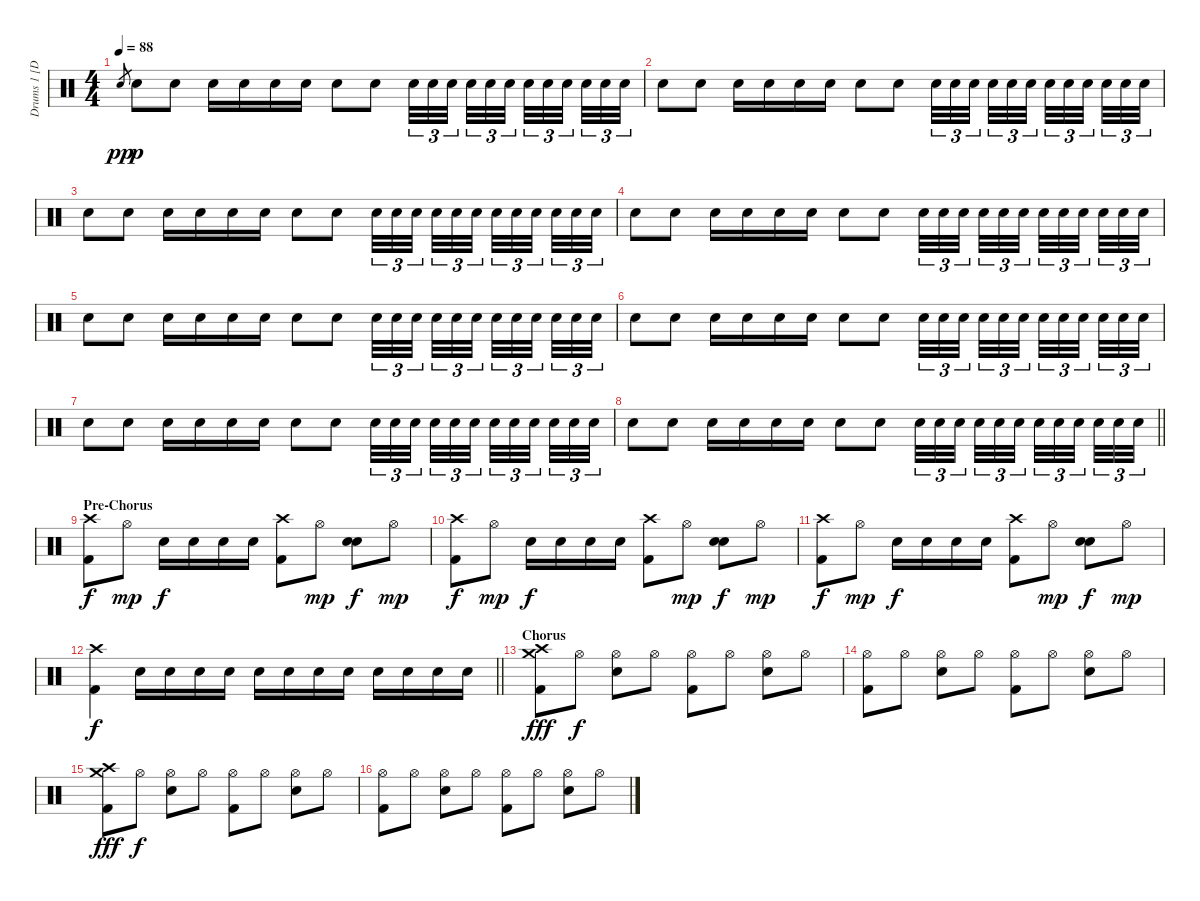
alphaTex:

\track ("Drums 1 [Doom]" "Drums 1 [D") {instrument percussion}
\staff {score}
\articulation defaults
\ts (4 4)
\tempo 88
\clef neutral
\ks c "Electric Snare (hit)".8{gr dy pp} "Electric Snare (hit)".8{dy p} "Electric Snare (hit)".8 "Electric Snare (hit)".16 "Electric Snare (hit)".16 "Electric Snare (hit)".16 "Electric Snare (hit)".16 "Electric Snare (hit)".8 "Electric Snare (hit)".8 "Electric Snare (hit)".32{tu (3 2)} "Electric Snare (hit)".32{tu (3 2)} "Electric Snare (hit)".32{tu (3 2)} "Electric Snare (hit)".32{tu (3 2)} "Electric Snare (hit)".32{tu (3 2)} "Electric Snare (hit)".32{tu (3 2)} "Electric Snare (hit)".32{tu (3 2)} "Electric Snare (hit)".32{tu (3 2)} "Electric Snare (hit)".32{tu (3 2)} "Electric Snare (hit)".32{tu (3 2)} "Electric Snare (hit)".32{tu (3 2)} "Electric Snare (hit)".32{tu (3 2)}
|
"Electric Snare (hit)".8 "Electric Snare (hit)".8 "Electric Snare (hit)".16 "Electric Snare (hit)".16 "Electric Snare (hit)".16 "Electric Snare (hit)".16 "Electric Snare (hit)".8 "Electric Snare (hit)".8 "Electric Snare (hit)".32{tu (3 2)} "Electric Snare (hit)".32{tu (3 2)} "Electric Snare (hit)".32{tu (3 2)} "Electric Snare (hit)".32{tu (3 2)} "Electric Snare (hit)".32{tu (3 2)} "Electric Snare (hit)".32{tu (3 2)} "Electric Snare (hit)".32{tu (3 2)} "Electric Snare (hit)".32{tu (3 2)} "Electric Snare (hit)".32{tu (3 2)} "Electric Snare (hit)".32{tu (3 2)} "Electric Snare (hit)".32{tu (3 2)} "Electric Snare (hit)".32{tu (3 2)} |
"Electric Snare (hit)".8 "Electric Snare (hit)".8 "Electric Snare (hit)".16 "Electric Snare (hit)".16 "Electric Snare (hit)".16 "Electric Snare (hit)".16 "Electric Snare (hit)".8 "Electric Snare (hit)".8 "Electric Snare (hit)".32{tu (3 2)} "Electric Snare (hit)".32{tu (3 2)} "Electric Snare (hit)".32{tu (3 2)} "Electric Snare (hit)".32{tu (3 2)} "Electric Snare (hit)".32{tu (3 2)} "Electric Snare (hit)".32{tu (3 2)} "Electric Snare (hit)".32{tu (3 2)} "Electric Snare (hit)".32{tu (3 2)} "Electric Snare (hit)".32{tu (3 2)} "Electric Snare (hit)".32{tu (3 2)} "Electric Snare (hit)".32{tu (3 2)} "Electric Snare (hit)".32{tu (3 2)} |
"Electric Snare (hit)".8 "Electric Snare (hit)".8 "Electric Snare (hit)".16 "Electric Snare (hit)".16 "Electric Snare (hit)".16 "Electric Snare (hit)".16 "Electric Snare (hit)".8 "Electric Snare (hit)".8 "Electric Snare (hit)".32{tu (3 2)} "Electric Snare (hit)".32{tu (3 2)} "Electric Snare (hit)".32{tu (3 2)} "Electric Snare (hit)".32{tu (3 2)} "Electric Snare (hit)".32{tu (3 2)} "Electric Snare (hit)".32{tu (3 2)} "Electric Snare (hit)".32{tu (3 2)} "Electric Snare (hit)".32{tu (3 2)} "Electric Snare (hit)".32{tu (3 2)} "Electric Snare (hit)".32{tu (3 2)} "Electric Snare (hit)".32{tu (3 2)} "Electric Snare (hit)".32{tu (3 2)} |
"Electric Snare (hit)".8 "Electric Snare (hit)".8 "Electric Snare (hit)".16 "Electric Snare (hit)".16 "Electric Snare (hit)".16 "Electric Snare (hit)".16 "Electric Snare (hit)".8 "Electric Snare (hit)".8 "Electric Snare (hit)".32{tu (3 2)} "Electric Snare (hit)".32{tu (3 2)} "Electric Snare (hit)".32{tu (3 2)} "Electric Snare (hit)".32{tu (3 2)} "Electric Snare (hit)".32{tu (3 2)} "Electric Snare (hit)".32{tu (3 2)} "Electric Snare (hit)".32{tu (3 2)} "Electric Snare (hit)".32{tu (3 2)} "Electric Snare (hit)".32{tu (3 2)} "Electric Snare (hit)".32{tu (3 2)} "Electric Snare (hit)".32{tu (3 2)} "Electric Snare (hit)".32{tu (3 2)} |
"Electric Snare (hit)".8 "Electric Snare (hit)".8 "Electric Snare (hit)".16 "Electric Snare (hit)".16 "Electric Snare (hit)".16 "Electric Snare (hit)".16 "Electric Snare (hit)".8 "Electric Snare (hit)".8 "Electric Snare (hit)".32{tu (3 2)} "Electric Snare (hit)".32{tu (3 2)} "Electric Snare (hit)".32{tu (3 2)} "Electric Snare (hit)".32{tu (3 2)} "Electric Snare (hit)".32{tu (3 2)} "Electric Snare (hit)".32{tu (3 2)} "Electric Snare (hit)".32{tu (3 2)} "Electric Snare (hit)".32{tu (3 2)} "Electric Snare (hit)".32{tu (3 2)} "Electric Snare (hit)".32{tu (3 2)} "Electric Snare (hit)".32{tu (3 2)} "Electric Snare (hit)".32{tu (3 2)} |
"Electric Snare (hit)".8 "Electric Snare (hit)".8 "Electric Snare (hit)".16 "Electric Snare (hit)".16 "Electric Snare (hit)".16 "Electric Snare (hit)".16 "Electric Snare (hit)".8 "Electric Snare (hit)".8 "Electric Snare (hit)".32{tu (3 2)} "Electric Snare (hit)".32{tu (3 2)} "Electric Snare (hit)".32{tu (3 2)} "Electric Snare (hit)".32{tu (3 2)} "Electric Snare (hit)".32{tu (3 2)} "Electric Snare (hit)".32{tu (3 2)} "Electric Snare (hit)".32{tu (3 2)} "Electric Snare (hit)".32{tu (3 2)} "Electric Snare (hit)".32{tu (3 2)} "Electric Snare (hit)".32{tu (3 2)} "Electric Snare (hit)".32{tu (3 2)} "Electric Snare (hit)".32{tu (3 2)} |
\barLineRight lightlight "Electric Snare (hit)".8 "Electric Snare (hit)".8 "Electric Snare (hit)".16 "Electric Snare (hit)".16 "Electric Snare (hit)".16 "Electric Snare (hit)".16 "Electric Snare (hit)".8 "Electric Snare (hit)".8 "Electric Snare (hit)".32{tu (3 2)} "Electric Snare (hit)".32{tu (3 2)} "Electric Snare (hit)".32{tu (3 2)} "Electric Snare (hit)".32{tu (3 2)} "Electric Snare (hit)".32{tu (3 2)} "Electric Snare (hit)".32{tu (3 2)} "Electric Snare (hit)".32{tu (3 2)} "Electric Snare (hit)".32{tu (3 2)} "Electric Snare (hit)".32{tu (3 2)} "Electric Snare (hit)".32{tu (3 2)} "Electric Snare (hit)".32{tu (3 2)} "Electric Snare (hit)".32{tu (3 2)}
|
\section ("" "Pre-Chorus ")
("Crash high (hit)" "Kick (hit) 2").8{dy f} "Hi-Hat (open)".8{dy mp} "Electric Snare (hit)".16{dy f} "Electric Snare (hit)".16 "Electric Snare (hit)".16 "Electric Snare (hit)".16 ("Crash high (hit)" "Kick (hit) 2").8 "Hi-Hat (open)".8{dy mp} ("Electric Snare (hit)" "Snare (hit) 2").8{dy f} "Hi-Hat (open)".8{dy mp} |
("Crash high (hit)" "Kick (hit) 2").8{dy f} "Hi-Hat (open)".8{dy mp} "Electric Snare (hit)".16{dy f} "Electric Snare (hit)".16 "Electric Snare (hit)".16 "Electric Snare (hit)".16 ("Crash high (hit)" "Kick (hit) 2").8 "Hi-Hat (open)".8{dy mp} ("Electric Snare (hit)" "Snare (hit) 2").8{dy f} "Hi-Hat (open)".8{dy mp} |
("Crash high (hit)" "Kick (hit) 2").8{dy f} "Hi-Hat (open)".8{dy mp} "Electric Snare (hit)".16{dy f} "Electric Snare (hit)".16 "Electric Snare (hit)".16 "Electric Snare (hit)".16 ("Crash high (hit)" "Kick (hit) 2").8 "Hi-Hat (open)".8{dy mp} ("Electric Snare (hit)" "Snare (hit) 2").8{dy f} "Hi-Hat (open)".8{dy mp} |
\barLineRight lightlight
("Crash high (hit)" "Kick (hit) 2").4{dy f} "Electric Snare (hit)".16 "Electric Snare (hit)".16 "Electric Snare (hit)".16 "Electric Snare (hit)".16 "Electric Snare (hit)".16 "Electric Snare (hit)".16 "Electric Snare (hit)".16 "Electric Snare (hit)".16 "Electric Snare (hit)".16 "Electric Snare (hit)".16 "Electric Snare (hit)".16 "Electric Snare (hit)".16 |
\section ("" "Chorus")
("Crash medium (hit)" "Crash high (hit)" "Kick (hit) 2").8{dy fff} "Hi-Hat (open)".8{dy f} ("Hi-Hat (open)" "Electric Snare (hit)").8 "Hi-Hat (open)".8 ("Hi-Hat (open)" "Kick (hit) 2").8 "Hi-Hat (open)".8 ("Hi-Hat (open)" "Electric Snare (hit)").8 "Hi-Hat (open)".8 |
("Hi-Hat (open)" "Kick (hit) 2").8 "Hi-Hat (open)".8 ("Hi-Hat (open)" "Electric Snare (hit)").8 "Hi-Hat (open)".8 ("Hi-Hat (open)" "Kick (hit) 2").8 "Hi-Hat (open)".8 ("Hi-Hat (open)" "Electric Snare (hit)").8 "Hi-Hat (open)".8 |
("Crash medium (hit)" "Crash high (hit)" "Kick (hit) 2").8{dy fff} "Hi-Hat (open)".8{dy f} ("Hi-Hat (open)" "Electric Snare (hit)").8 "Hi-Hat (open)".8 ("Hi-Hat (open)" "Kick (hit) 2").8 "Hi-Hat (open)".8 ("Hi-Hat (open)" "Electric Snare (hit)").8 "Hi-Hat (open)".8 |
("Hi-Hat (open)" "Kick (hit) 2").8 "Hi-Hat (open)".8 ("Hi-Hat (open)" "Electric Snare (hit)").8 "Hi-Hat (open)".8 ("Hi-Hat (open)" "Kick (hit) 2").8 "Hi-Hat (open)".8 ("Hi-Hat (open)" "Electric Snare (hit)").8 "Hi-Hat (open)".8
